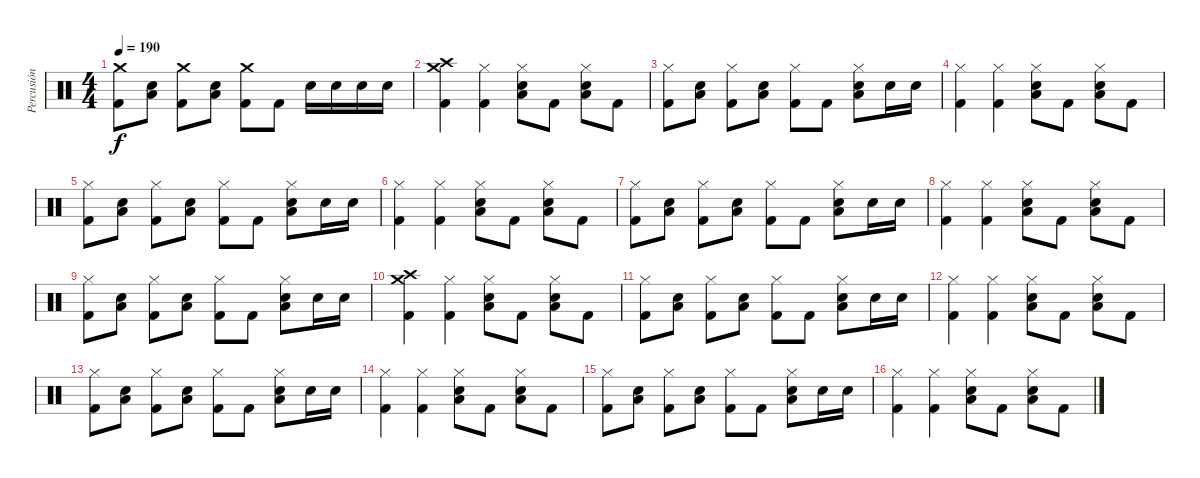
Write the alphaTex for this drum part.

\track ("Percusión" "Percusión") {instrument percussion}
\staff {score}
\articulation defaults
\ts (4 4)
\tempo 190
\clef neutral
\ks c
("Crash medium (hit)" "Kick (hit) 2").8{dy f} ("Low Tom (hit)" "Snare (hit) 2").8 ("Crash medium (hit)" "Kick (hit) 2").8 ("Low Tom (hit)" "Snare (hit) 2").8 ("Crash medium (hit)" "Kick (hit) 2").8 "Kick (hit) 2".8 "Snare (hit) 2".16 "Snare (hit) 2".16 "Snare (hit) 2".16 "Snare (hit) 2".16 |
("Crash medium (hit)" "Crash high (hit)" "Kick (hit) 2").4 ("Hi-Hat (closed)" "Kick (hit) 2").4 ("Hi-Hat (closed)" "Low Tom (hit)" "Snare (hit) 2").8 "Kick (hit) 2".8 ("Hi-Hat (closed)" "Low Tom (hit)" "Snare (hit) 2").8 "Kick (hit) 2".8 |
("Hi-Hat (closed)" "Kick (hit) 2").8 ("Low Tom (hit)" "Snare (hit) 2").8 ("Hi-Hat (closed)" "Kick (hit) 2").8 ("Low Tom (hit)" "Snare (hit) 2").8 ("Hi-Hat (closed)" "Kick (hit) 2").8 "Kick (hit) 2".8 ("Hi-Hat (closed)" "Low Tom (hit)" "Snare (hit) 2").8 "Snare (hit) 2".16 "Snare (hit) 2".16 |
("Hi-Hat (closed)" "Kick (hit) 2").4 ("Hi-Hat (closed)" "Kick (hit) 2").4 ("Hi-Hat (closed)" "Low Tom (hit)" "Snare (hit) 2").8 "Kick (hit) 2".8 ("Hi-Hat (closed)" "Low Tom (hit)" "Snare (hit) 2").8 "Kick (hit) 2".8 |
("Hi-Hat (closed)" "Kick (hit) 2").8 ("Low Tom (hit)" "Snare (hit) 2").8 ("Hi-Hat (closed)" "Kick (hit) 2").8 ("Low Tom (hit)" "Snare (hit) 2").8 ("Hi-Hat (closed)" "Kick (hit) 2").8 "Kick (hit) 2".8 ("Hi-Hat (closed)" "Low Tom (hit)" "Snare (hit) 2").8 "Snare (hit) 2".16 "Snare (hit) 2".16 |
("Hi-Hat (closed)" "Kick (hit) 2").4 ("Hi-Hat (closed)" "Kick (hit) 2").4 ("Hi-Hat (closed)" "Low Tom (hit)" "Snare (hit) 2").8 "Kick (hit) 2".8 ("Hi-Hat (closed)" "Low Tom (hit)" "Snare (hit) 2").8 "Kick (hit) 2".8 |
("Hi-Hat (closed)" "Kick (hit) 2").8 ("Low Tom (hit)" "Snare (hit) 2").8 ("Hi-Hat (closed)" "Kick (hit) 2").8 ("Low Tom (hit)" "Snare (hit) 2").8 ("Hi-Hat (closed)" "Kick (hit) 2").8 "Kick (hit) 2".8 ("Hi-Hat (closed)" "Low Tom (hit)" "Snare (hit) 2").8 "Snare (hit) 2".16 "Snare (hit) 2".16 |
("Hi-Hat (closed)" "Kick (hit) 2").4 ("Hi-Hat (closed)" "Kick (hit) 2").4 ("Hi-Hat (closed)" "Low Tom (hit)" "Snare (hit) 2").8 "Kick (hit) 2".8 ("Hi-Hat (closed)" "Low Tom (hit)" "Snare (hit) 2").8 "Kick (hit) 2".8 |
("Hi-Hat (closed)" "Kick (hit) 2").8 ("Low Tom (hit)" "Snare (hit) 2").8 ("Hi-Hat (closed)" "Kick (hit) 2").8 ("Low Tom (hit)" "Snare (hit) 2").8 ("Hi-Hat (closed)" "Kick (hit) 2").8 "Kick (hit) 2".8 ("Hi-Hat (closed)" "Low Tom (hit)" "Snare (hit) 2").8 "Snare (hit) 2".16 "Snare (hit) 2".16 |
("Crash medium (hit)" "Crash high (hit)" "Kick (hit) 2").4 ("Hi-Hat (closed)" "Kick (hit) 2").4 ("Hi-Hat (closed)" "Low Tom (hit)" "Snare (hit) 2").8 "Kick (hit) 2".8 ("Hi-Hat (closed)" "Low Tom (hit)" "Snare (hit) 2").8 "Kick (hit) 2".8 |
("Hi-Hat (closed)" "Kick (hit) 2").8 ("Low Tom (hit)" "Snare (hit) 2").8 ("Hi-Hat (closed)" "Kick (hit) 2").8 ("Low Tom (hit)" "Snare (hit) 2").8 ("Hi-Hat (closed)" "Kick (hit) 2").8 "Kick (hit) 2".8 ("Hi-Hat (closed)" "Low Tom (hit)" "Snare (hit) 2").8 "Snare (hit) 2".16 "Snare (hit) 2".16 |
("Hi-Hat (closed)" "Kick (hit) 2").4 ("Hi-Hat (closed)" "Kick (hit) 2").4 ("Hi-Hat (closed)" "Low Tom (hit)" "Snare (hit) 2").8 "Kick (hit) 2".8 ("Hi-Hat (closed)" "Low Tom (hit)" "Snare (hit) 2").8 "Kick (hit) 2".8 |
("Hi-Hat (closed)" "Kick (hit) 2").8 ("Low Tom (hit)" "Snare (hit) 2").8 ("Hi-Hat (closed)" "Kick (hit) 2").8 ("Low Tom (hit)" "Snare (hit) 2").8 ("Hi-Hat (closed)" "Kick (hit) 2").8 "Kick (hit) 2".8 ("Hi-Hat (closed)" "Low Tom (hit)" "Snare (hit) 2").8 "Snare (hit) 2".16 "Snare (hit) 2".16 |
("Hi-Hat (closed)" "Kick (hit) 2").4 ("Hi-Hat (closed)" "Kick (hit) 2").4 ("Hi-Hat (closed)" "Low Tom (hit)" "Snare (hit) 2").8 "Kick (hit) 2".8 ("Hi-Hat (closed)" "Low Tom (hit)" "Snare (hit) 2").8 "Kick (hit) 2".8 |
("Hi-Hat (closed)" "Kick (hit) 2").8 ("Low Tom (hit)" "Snare (hit) 2").8 ("Hi-Hat (closed)" "Kick (hit) 2").8 ("Low Tom (hit)" "Snare (hit) 2").8 ("Hi-Hat (closed)" "Kick (hit) 2").8 "Kick (hit) 2".8 ("Hi-Hat (closed)" "Low Tom (hit)" "Snare (hit) 2").8 "Snare (hit) 2".16 "Snare (hit) 2".16 |
("Hi-Hat (closed)" "Kick (hit) 2").4 ("Hi-Hat (closed)" "Kick (hit) 2").4 ("Hi-Hat (closed)" "Low Tom (hit)" "Snare (hit) 2").8 "Kick (hit) 2".8 ("Hi-Hat (closed)" "Low Tom (hit)" "Snare (hit) 2").8 "Kick (hit) 2".8
